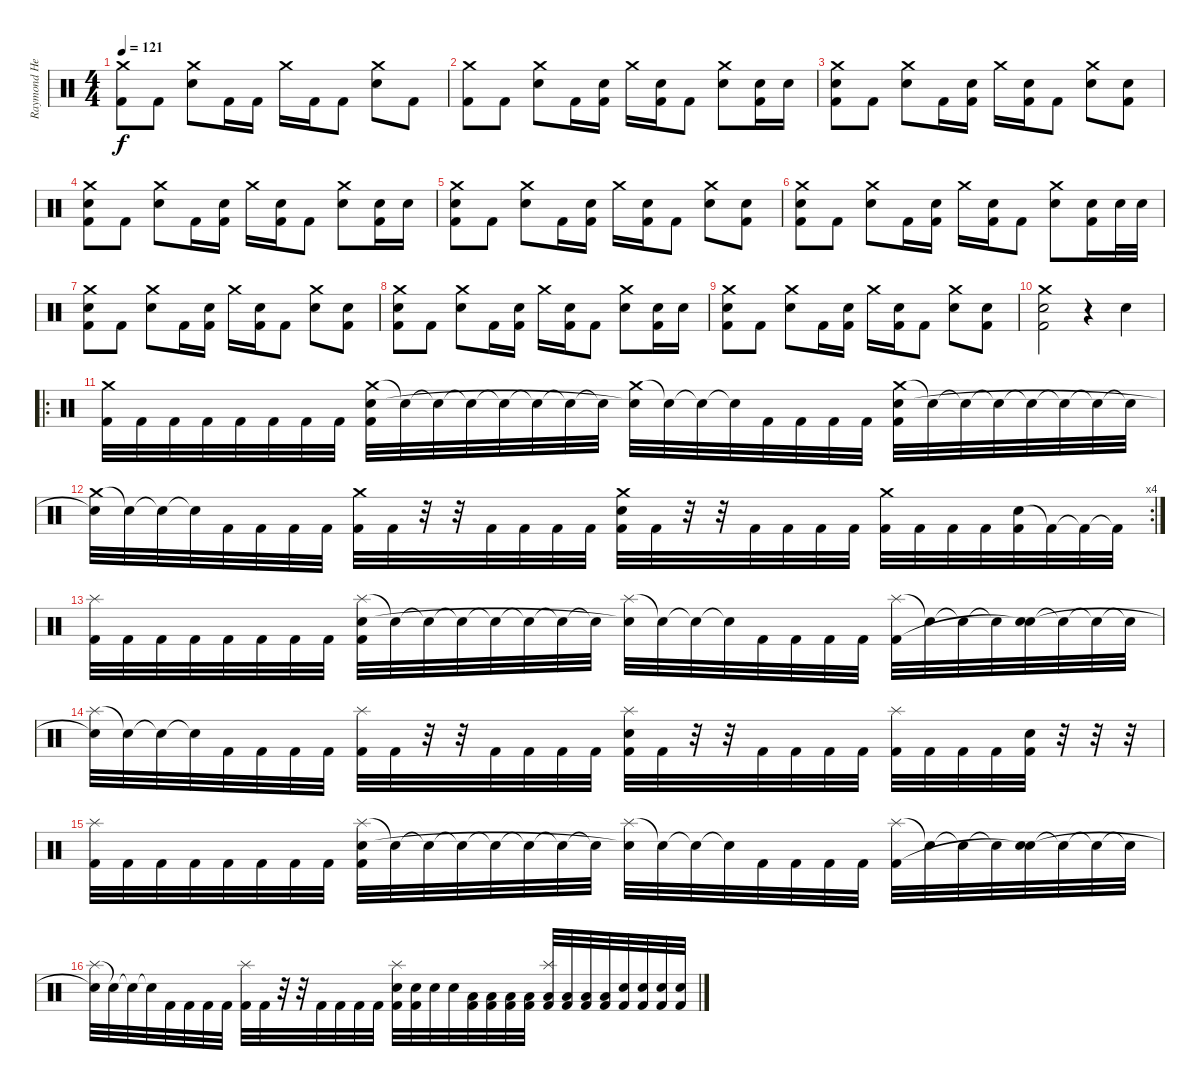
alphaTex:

\track ("Raymond Herrerra" "Raymond He") {instrument percussion}
\staff {score}
\articulation defaults
\ts (4 4)
\tempo 121
\clef neutral
\ks c
("Crash medium (hit)" "Kick (hit) 2").8{dy f} "Kick (hit) 2".8 ("Crash medium (hit)" "Electric Snare (hit)").8 "Kick (hit) 2".16 "Kick (hit) 2".16 "Crash medium (hit)".16 "Kick (hit) 2".16 "Kick (hit) 2".8 ("Crash medium (hit)" "Electric Snare (hit)").8 "Kick (hit) 2".8 |
("Crash medium (hit)" "Kick (hit) 2").8 "Kick (hit) 2".8 ("Crash medium (hit)" "Electric Snare (hit)").8 "Kick (hit) 2".16 ("Electric Snare (hit)" "Kick (hit) 2").16 "Crash medium (hit)".16 ("Electric Snare (hit)" "Kick (hit) 2").16 "Kick (hit) 2".8 ("Crash medium (hit)" "Electric Snare (hit)").8 ("Electric Snare (hit)" "Kick (hit) 2").16 "Electric Snare (hit)".16 |
("Crash medium (hit)" "Electric Snare (hit)" "Kick (hit) 2").8 "Kick (hit) 2".8 ("Crash medium (hit)" "Electric Snare (hit)").8 "Kick (hit) 2".16 ("Electric Snare (hit)" "Kick (hit) 2").16 "Crash medium (hit)".16 ("Electric Snare (hit)" "Kick (hit) 2").16 "Kick (hit) 2".8 ("Crash medium (hit)" "Electric Snare (hit)").8 ("Electric Snare (hit)" "Kick (hit) 2").8 |
("Crash medium (hit)" "Electric Snare (hit)" "Kick (hit) 2").8 "Kick (hit) 2".8 ("Crash medium (hit)" "Electric Snare (hit)").8 "Kick (hit) 2".16 ("Electric Snare (hit)" "Kick (hit) 2").16 "Crash medium (hit)".16 ("Electric Snare (hit)" "Kick (hit) 2").16 "Kick (hit) 2".8 ("Crash medium (hit)" "Electric Snare (hit)").8 ("Electric Snare (hit)" "Kick (hit) 2").16 "Electric Snare (hit)".16 |
("Crash medium (hit)" "Electric Snare (hit)" "Kick (hit) 2").8 "Kick (hit) 2".8 ("Crash medium (hit)" "Electric Snare (hit)").8 "Kick (hit) 2".16 ("Electric Snare (hit)" "Kick (hit) 2").16 "Crash medium (hit)".16 ("Electric Snare (hit)" "Kick (hit) 2").16 "Kick (hit) 2".8 ("Crash medium (hit)" "Electric Snare (hit)").8 ("Electric Snare (hit)" "Kick (hit) 2").8 |
("Crash medium (hit)" "Electric Snare (hit)" "Kick (hit) 2").8 "Kick (hit) 2".8 ("Crash medium (hit)" "Electric Snare (hit)").8 "Kick (hit) 2".16 ("Electric Snare (hit)" "Kick (hit) 2").16 "Crash medium (hit)".16 ("Electric Snare (hit)" "Kick (hit) 2").16 "Kick (hit) 2".8 ("Crash medium (hit)" "Electric Snare (hit)").8 ("Electric Snare (hit)" "Kick (hit) 2").16 "Electric Snare (hit)".32 "Electric Snare (hit)".32 |
("Crash medium (hit)" "Electric Snare (hit)" "Kick (hit) 2").8 "Kick (hit) 2".8 ("Crash medium (hit)" "Electric Snare (hit)").8 "Kick (hit) 2".16 ("Electric Snare (hit)" "Kick (hit) 2").16 "Crash medium (hit)".16 ("Electric Snare (hit)" "Kick (hit) 2").16 "Kick (hit) 2".8 ("Crash medium (hit)" "Electric Snare (hit)").8 ("Electric Snare (hit)" "Kick (hit) 2").8 |
("Crash medium (hit)" "Electric Snare (hit)" "Kick (hit) 2").8 "Kick (hit) 2".8 ("Crash medium (hit)" "Electric Snare (hit)").8 "Kick (hit) 2".16 ("Electric Snare (hit)" "Kick (hit) 2").16 "Crash medium (hit)".16 ("Electric Snare (hit)" "Kick (hit) 2").16 "Kick (hit) 2".8 ("Crash medium (hit)" "Electric Snare (hit)").8 ("Electric Snare (hit)" "Kick (hit) 2").16 "Electric Snare (hit)".16 |
("Crash medium (hit)" "Electric Snare (hit)" "Kick (hit) 2").8 "Kick (hit) 2".8 ("Crash medium (hit)" "Electric Snare (hit)").8 "Kick (hit) 2".16 ("Electric Snare (hit)" "Kick (hit) 2").16 "Crash medium (hit)".16 ("Electric Snare (hit)" "Kick (hit) 2").16 "Kick (hit) 2".8 ("Crash medium (hit)" "Electric Snare (hit)").8 ("Electric Snare (hit)" "Kick (hit) 2").8 |
("Crash medium (hit)" "Electric Snare (hit)" "Kick (hit) 2").2 r.4 "Electric Snare (hit)".4 |
\ro
("Crash medium (hit)" "Kick (hit) 2").32 "Kick (hit) 2".32 "Kick (hit) 2".32 "Kick (hit) 2".32 "Kick (hit) 2".32 "Kick (hit) 2".32 "Kick (hit) 2".32 "Kick (hit) 2".32 ("Crash medium (hit)" "Electric Snare (hit)" "Kick (hit) 2").32 "Snare (hit)"{t}.32 "Snare (hit)"{t}.32 "Snare (hit)"{t}.32 "Snare (hit)"{t}.32 "Snare (hit)"{t}.32 "Snare (hit)"{t}.32 "Snare (hit)"{t}.32 ("Crash medium (hit)" "Snare (hit)"{t}).32 "Snare (hit)"{t}.32 "Snare (hit)"{t}.32 "Snare (hit)"{t}.32 "Kick (hit) 2".32 "Kick (hit) 2".32 "Kick (hit) 2".32 "Kick (hit) 2".32 ("Crash medium (hit)" "Electric Snare (hit)" "Kick (hit) 2").32 "Snare (hit)"{t}.32 "Snare (hit)"{t}.32 "Snare (hit)"{t}.32 "Snare (hit)"{t}.32 "Snare (hit)"{t}.32 "Snare (hit)"{t}.32 "Snare (hit)"{t}.32 |
\rc 4
("Crash medium (hit)" "Snare (hit)"{t}).32 "Snare (hit)"{t}.32 "Snare (hit)"{t}.32 "Snare (hit)"{t}.32 "Kick (hit) 2".32 "Kick (hit) 2".32 "Kick (hit) 2".32 "Kick (hit) 2".32 ("Crash medium (hit)" "Kick (hit) 2").32 "Kick (hit) 2".32 r.32 r.32 "Kick (hit) 2".32 "Kick (hit) 2".32 "Kick (hit) 2".32 "Kick (hit) 2".32 ("Crash medium (hit)" "Electric Snare (hit)" "Kick (hit) 2").32 "Kick (hit) 2".32 r.32 r.32 "Kick (hit) 2".32 "Kick (hit) 2".32 "Kick (hit) 2".32 "Kick (hit) 2".32 ("Crash medium (hit)" "Kick (hit) 2").32 "Kick (hit) 2".32 "Kick (hit) 2".32 "Kick (hit) 2".32 ("Electric Snare (hit)" "Kick (hit) 2").32 "Kick (hit) 2"{t}.32 "Kick (hit) 2"{t}.32 "Kick (hit) 2"{t}.32 |
("Splash (hit)" "Kick (hit) 2").32 "Kick (hit) 2".32 "Kick (hit) 2".32 "Kick (hit) 2".32 "Kick (hit) 2".32 "Kick (hit) 2".32 "Kick (hit) 2".32 "Kick (hit) 2".32 ("Splash (hit)" "Electric Snare (hit)" "Kick (hit) 2").32 "Snare (hit)"{t}.32 "Snare (hit)"{t}.32 "Snare (hit)"{t}.32 "Snare (hit)"{t}.32 "Snare (hit)"{t}.32 "Snare (hit)"{t}.32 "Snare (hit)"{t}.32 ("Splash (hit)" "Snare (hit)"{t}).32 "Snare (hit)"{t}.32 "Snare (hit)"{t}.32 "Snare (hit)"{t}.32 "Kick (hit) 2".32 "Kick (hit) 2".32 "Kick (hit) 2".32 "Kick (hit) 2".32 ("Splash (hit)" "Kick (hit) 2").32 "Snare (hit)"{t}.32 "Snare (hit)"{t}.32 "Snare (hit)"{t}.32 ("Electric Snare (hit)" "Snare (hit)"{t}).32 "Snare (hit)"{t}.32 "Snare (hit)"{t}.32 "Snare (hit)"{t}.32 |
("Splash (hit)" "Snare (hit)"{t}).32 "Snare (hit)"{t}.32 "Snare (hit)"{t}.32 "Snare (hit)"{t}.32 "Kick (hit) 2".32 "Kick (hit) 2".32 "Kick (hit) 2".32 "Kick (hit) 2".32 ("Splash (hit)" "Kick (hit) 2").32 "Kick (hit) 2".32 r.32 r.32 "Kick (hit) 2".32 "Kick (hit) 2".32 "Kick (hit) 2".32 "Kick (hit) 2".32 ("Splash (hit)" "Electric Snare (hit)" "Kick (hit) 2").32 "Kick (hit) 2".32 r.32 r.32 "Kick (hit) 2".32 "Kick (hit) 2".32 "Kick (hit) 2".32 "Kick (hit) 2".32 ("Splash (hit)" "Kick (hit) 2").32 "Kick (hit) 2".32 "Kick (hit) 2".32 "Kick (hit) 2".32 ("Electric Snare (hit)" "Kick (hit) 2").32 r.32 r.32 r.32 |
("Splash (hit)" "Kick (hit) 2").32 "Kick (hit) 2".32 "Kick (hit) 2".32 "Kick (hit) 2".32 "Kick (hit) 2".32 "Kick (hit) 2".32 "Kick (hit) 2".32 "Kick (hit) 2".32 ("Splash (hit)" "Electric Snare (hit)" "Kick (hit) 2").32 "Snare (hit)"{t}.32 "Snare (hit)"{t}.32 "Snare (hit)"{t}.32 "Snare (hit)"{t}.32 "Snare (hit)"{t}.32 "Snare (hit)"{t}.32 "Snare (hit)"{t}.32 ("Splash (hit)" "Snare (hit)"{t}).32 "Snare (hit)"{t}.32 "Snare (hit)"{t}.32 "Snare (hit)"{t}.32 "Kick (hit) 2".32 "Kick (hit) 2".32 "Kick (hit) 2".32 "Kick (hit) 2".32 ("Splash (hit)" "Kick (hit) 2").32 "Snare (hit)"{t}.32 "Snare (hit)"{t}.32 "Snare (hit)"{t}.32 ("Electric Snare (hit)" "Snare (hit)"{t}).32 "Snare (hit)"{t}.32 "Snare (hit)"{t}.32 "Snare (hit)"{t}.32 |
("Splash (hit)" "Snare (hit)"{t}).32 "Snare (hit)"{t}.32 "Snare (hit)"{t}.32 "Snare (hit)"{t}.32 "Kick (hit) 2".32 "Kick (hit) 2".32 "Kick (hit) 2".32 "Kick (hit) 2".32 ("Splash (hit)" "Kick (hit) 2").32 "Kick (hit) 2".32 r.32 r.32 "Kick (hit) 2".32 "Kick (hit) 2".32 "Kick (hit) 2".32 "Kick (hit) 2".32 ("Splash (hit)" "Electric Snare (hit)" "Kick (hit) 2").32 ("Electric Snare (hit)" "Kick (hit) 2").32 "Electric Snare (hit)".32 "Electric Snare (hit)".32 ("Low Tom (hit)" "Kick (hit) 2").32 ("Low Tom (hit)" "Kick (hit) 2").32 ("Low Tom (hit)" "Kick (hit) 2").32 ("Low Tom (hit)" "Kick (hit) 2").32 ("Splash (hit)" "Low Floor Tom (hit)" "Kick (hit) 2").32 ("Low Floor Tom (hit)" "Kick (hit) 2").32 ("Low Floor Tom (hit)" "Kick (hit) 2").32 ("Low Floor Tom (hit)" "Kick (hit) 2").32 ("Electric Snare (hit)" "Kick (hit) 2").32 ("Electric Snare (hit)" "Kick (hit) 2").32 ("Electric Snare (hit)" "Kick (hit) 2").32 ("Electric Snare (hit)" "Kick (hit) 2").32
